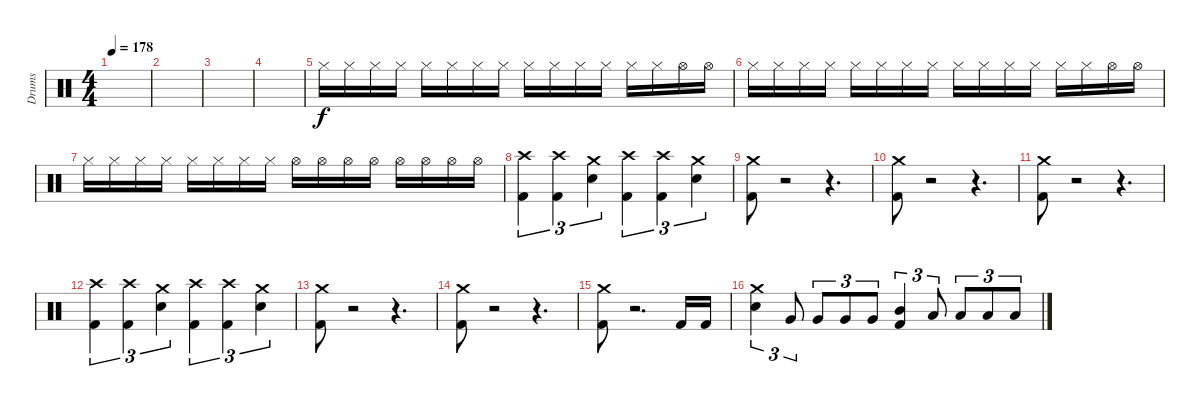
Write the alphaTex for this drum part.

\track ("Drums" "Drums") {instrument percussion}
\staff {score}
\articulation defaults
\ts (4 4)
\tempo 178
\clef neutral
\ks c
|
|
|
|
"Hi-Hat (closed)".16 "Hi-Hat (closed)".16 "Hi-Hat (closed)".16 "Hi-Hat (closed)".16 "Hi-Hat (closed)".16 "Hi-Hat (closed)".16 "Hi-Hat (closed)".16 "Hi-Hat (closed)".16 "Hi-Hat (closed)".16 "Hi-Hat (closed)".16 "Hi-Hat (closed)".16 "Hi-Hat (closed)".16 "Hi-Hat (closed)".16 "Hi-Hat (closed)".16 "Hi-Hat (open)".16 "Hi-Hat (open)".16 |
"Hi-Hat (closed)".16 "Hi-Hat (closed)".16 "Hi-Hat (closed)".16 "Hi-Hat (closed)".16 "Hi-Hat (closed)".16 "Hi-Hat (closed)".16 "Hi-Hat (closed)".16 "Hi-Hat (closed)".16 "Hi-Hat (closed)".16 "Hi-Hat (closed)".16 "Hi-Hat (closed)".16 "Hi-Hat (closed)".16 "Hi-Hat (closed)".16 "Hi-Hat (closed)".16 "Hi-Hat (open)".16 "Hi-Hat (open)".16 |
"Hi-Hat (closed)".16 "Hi-Hat (closed)".16 "Hi-Hat (closed)".16 "Hi-Hat (closed)".16 "Hi-Hat (closed)".16 "Hi-Hat (closed)".16 "Hi-Hat (closed)".16 "Hi-Hat (closed)".16 "Hi-Hat (open)".16 "Hi-Hat (open)".16 "Hi-Hat (open)".16 "Hi-Hat (open)".16 "Hi-Hat (open)".16 "Hi-Hat (open)".16 "Hi-Hat (open)".16 "Hi-Hat (open)".16 |
("Crash high (hit)" "Kick (hit) 2").4{tu (3 2)} ("Crash high (hit)" "Kick (hit) 2").4{tu (3 2)} ("Crash medium (hit)" "Electric Snare (hit)").4{tu (3 2)} ("Crash high (hit)" "Kick (hit) 2").4{tu (3 2)} ("Crash high (hit)" "Kick (hit) 2").4{tu (3 2)} ("Crash medium (hit)" "Electric Snare (hit)").4{tu (3 2)} |
("Crash medium (hit)" "Kick (hit) 2").8 r.2{volume 0} r.4{d} |
("Crash medium (hit)" "Kick (hit) 2").8{volume 16} r.2{volume 0} r.4{d} |
("Crash medium (hit)" "Kick (hit) 2").8{volume 16} r.2{volume 0} r.4{d} |
("Crash high (hit)" "Kick (hit) 2").4{tu (3 2) volume 16} ("Crash high (hit)" "Kick (hit) 2").4{tu (3 2)} ("Crash medium (hit)" "Electric Snare (hit)").4{tu (3 2)} ("Crash high (hit)" "Kick (hit) 2").4{tu (3 2)} ("Crash high (hit)" "Kick (hit) 2").4{tu (3 2)} ("Crash medium (hit)" "Electric Snare (hit)").4{tu (3 2)} |
("Crash medium (hit)" "Kick (hit) 2").8 r.2{volume 0} r.4{d} |
("Crash medium (hit)" "Kick (hit) 2").8{volume 16} r.2{volume 0} r.4{d} |
("Crash medium (hit)" "Kick (hit) 2").8{volume 16} r.2{d volume 0} "Kick (hit) 2".16{volume 16} "Kick (hit) 2".16 |
("Crash medium (hit)" "Electric Snare (hit)").4{tu (3 2)} "Very Low Tom (hit)".8{tu (3 2)} "Very Low Tom (hit)".8{tu (3 2)} "Very Low Tom (hit)".8{tu (3 2)} "Very Low Tom (hit)".8{tu (3 2)} ("Mid Tom (hit)" "Kick (hit) 2").4{tu (3 2)} "Low Floor Tom (hit)".8{tu (3 2)} "Low Floor Tom (hit)".8{tu (3 2)} "Low Floor Tom (hit)".8{tu (3 2)} "Low Floor Tom (hit)".8{tu (3 2)}
